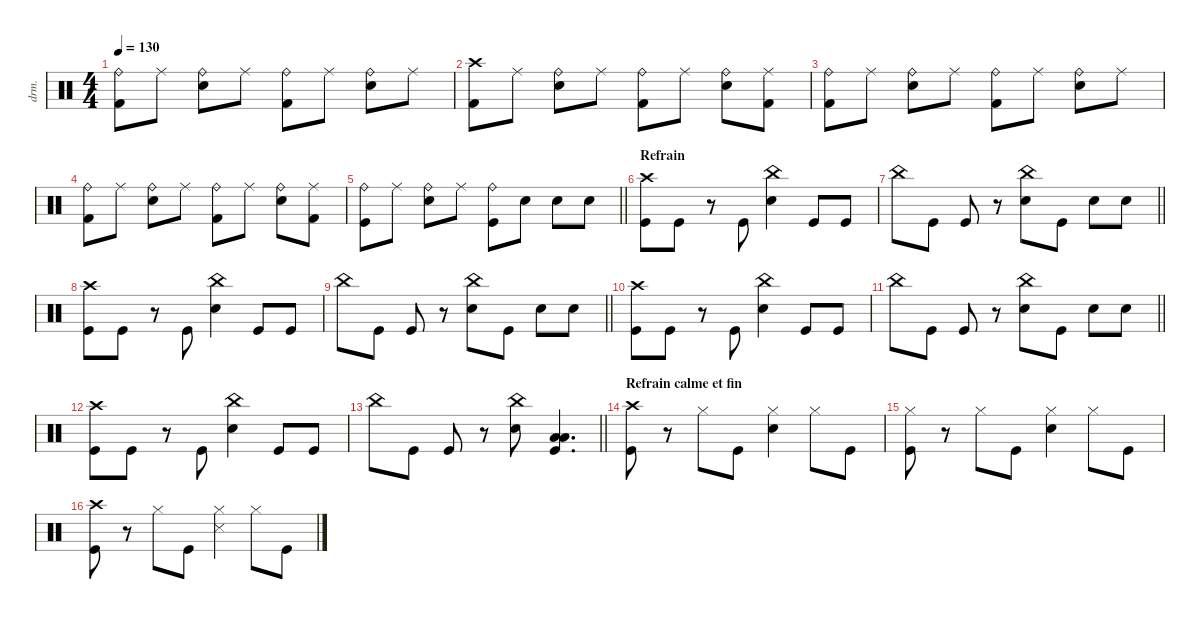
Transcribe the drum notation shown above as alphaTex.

\defaultSystemsLayout 4
\hideDynamics
\bracketExtendMode nobrackets
\track ("Manouche" "drm.") {solo instrument percussion}
\staff {score}
\articulation defaults
\ts (4 4)
\tempo 130
\clef neutral
\ks c
("Ride (bell)" "Kick (hit) 2").8{dy f beam Down} "Ride (middle)".8{dy mf beam Down} ("Ride (bell)" "Snare (hit) 2").8{dy f beam Down} "Ride (middle)".8{dy mf beam Down} ("Ride (bell)" "Kick (hit) 2").8{dy f beam Down} "Ride (middle)".8{dy mf beam Down} ("Ride (bell)" "Snare (hit) 2").8{dy f beam Down} "Ride (middle)".8{dy mf beam Down} |
("Crash high (hit)" "Kick (hit) 2").8{dy f beam Down} "Ride (middle)".8{dy mf beam Down} ("Ride (bell)" "Snare (hit) 2").8{dy f beam Down} "Ride (middle)".8{dy mf beam Down} ("Ride (bell)" "Kick (hit) 2").8{dy f beam Down} "Ride (middle)".8{dy mf beam Down} ("Ride (bell)" "Snare (hit) 2").8{dy f beam Down} ("Ride (middle)" "Kick (hit) 2").8{dy mf beam Down} |
("Ride (bell)" "Kick (hit) 2").8{dy f beam Down} "Ride (middle)".8{dy mf beam Down} ("Ride (bell)" "Snare (hit) 2").8{dy f beam Down} "Ride (middle)".8{dy mf beam Down} ("Ride (bell)" "Kick (hit) 2").8{dy f beam Down} "Ride (middle)".8{dy mf beam Down} ("Ride (bell)" "Snare (hit) 2").8{dy f beam Down} "Ride (middle)".8{dy mf beam Down} |
("Ride (bell)" "Kick (hit) 2").8{dy f beam Down} "Ride (middle)".8{dy mf beam Down} ("Ride (bell)" "Snare (hit) 2").8{dy f beam Down} "Ride (middle)".8{dy mf beam Down} ("Ride (bell)" "Kick (hit) 2").8{dy f beam Down} "Ride (middle)".8{dy mf beam Down} ("Ride (bell)" "Snare (hit) 2").8{dy f beam Down} ("Ride (middle)" "Kick (hit) 2").8{dy mf beam Down} |
\barLineRight lightlight
("Ride (bell)" "Kick (hit)").8{dy f beam Down} "Ride (middle)".8{dy mf beam Down} ("Ride (bell)" "Snare (hit) 2").8{dy f beam Down} "Ride (middle)".8{dy mf beam Down} ("Ride (bell)" "Kick (hit)").8{dy f beam Down} "Snare (hit) 2".8{beam Down} "Snare (hit) 2".8{beam Down} "Snare (hit) 2".8{beam Down} |
\section ("" "Refrain")
("Crash high (hit)" "Kick (hit)").8{beam Down} "Kick (hit)".8{beam Down} r.8{beam Down} "Kick (hit)".8{beam Up} ("China (hit)" "Snare (hit) 2").4{beam Down} "Kick (hit)".8{beam Up} "Kick (hit)".8{beam Up} |
\barLineRight lightlight "China (hit)".8{beam Down} "Kick (hit)".8{beam Down} "Kick (hit)".8{beam Up}
r.8{beam Down} ("China (hit)" "Snare (hit) 2").8{beam Down} "Kick (hit)".8{beam Down} "Snare (hit) 2".8{beam Down} "Snare (hit) 2".8{beam Down} |
("Crash high (hit)" "Kick (hit)").8{beam Down} "Kick (hit)".8{beam Down} r.8{beam Down} "Kick (hit)".8{beam Up} ("China (hit)" "Snare (hit) 2").4{beam Down} "Kick (hit)".8{beam Up} "Kick (hit)".8{beam Up} |
\barLineRight lightlight "China (hit)".8{beam Down} "Kick (hit)".8{beam Down} "Kick (hit)".8{beam Up}
r.8{beam Down} ("China (hit)" "Snare (hit) 2").8{beam Down} "Kick (hit)".8{beam Down} "Snare (hit) 2".8{beam Down} "Snare (hit) 2".8{beam Down} |
("Crash high (hit)" "Kick (hit)").8{beam Down} "Kick (hit)".8{beam Down} r.8{beam Down} "Kick (hit)".8{beam Up} ("China (hit)" "Snare (hit) 2").4{beam Down} "Kick (hit)".8{beam Up} "Kick (hit)".8{beam Up} |
\barLineRight lightlight "China (hit)".8{beam Down} "Kick (hit)".8{beam Down} "Kick (hit)".8{beam Up}
r.8{beam Down} ("China (hit)" "Snare (hit) 2").8{beam Down} "Kick (hit)".8{beam Down} "Snare (hit) 2".8{beam Down} "Snare (hit) 2".8{beam Down} |
("Crash high (hit)" "Kick (hit)").8{beam Down} "Kick (hit)".8{beam Down} r.8{beam Down} "Kick (hit)".8{beam Up} ("China (hit)" "Snare (hit) 2").4{beam Down} "Kick (hit)".8{beam Up} "Kick (hit)".8{beam Up} |
\barLineRight lightlight "China (hit)".8{beam Down} "Kick (hit)".8{beam Down} "Kick (hit)".8{beam Up}
r.8{beam Down} ("China (hit)" "Snare (hit) 2").8{beam Down} ("Low Tom (hit)" "Kick (hit)" "Low Floor Tom (hit)").4{d dy ff beam Up} |
\section ("" "Refrain calme et fin")
("Crash high (hit)" "Kick (hit)").8{dy f beam Down} r.8{beam Down} "Hi-Hat (closed)".8{beam Down} "Kick (hit)".8{beam Down} ("Hi-Hat (closed)" "Snare (hit) 2").4{beam Down} "Hi-Hat (closed)".8{beam Down} "Kick (hit)".8{beam Down} |
("Hi-Hat (closed)" "Kick (hit)").8{beam Down} r.8{beam Down} "Hi-Hat (closed)".8{beam Down} "Kick (hit)".8{beam Down} ("Hi-Hat (closed)" "Snare (hit) 2").4{beam Down} "Hi-Hat (closed)".8{beam Down} "Kick (hit)".8{beam Down} |
("Crash high (hit)" "Kick (hit)").8{beam Down} r.8{beam Down} "Hi-Hat (closed)".8{beam Down} "Kick (hit)".8{beam Down} ("Hi-Hat (closed)" "Snare (side stick) 3").4{beam Down} "Hi-Hat (closed)".8{beam Down} "Kick (hit)".8{beam Down}
